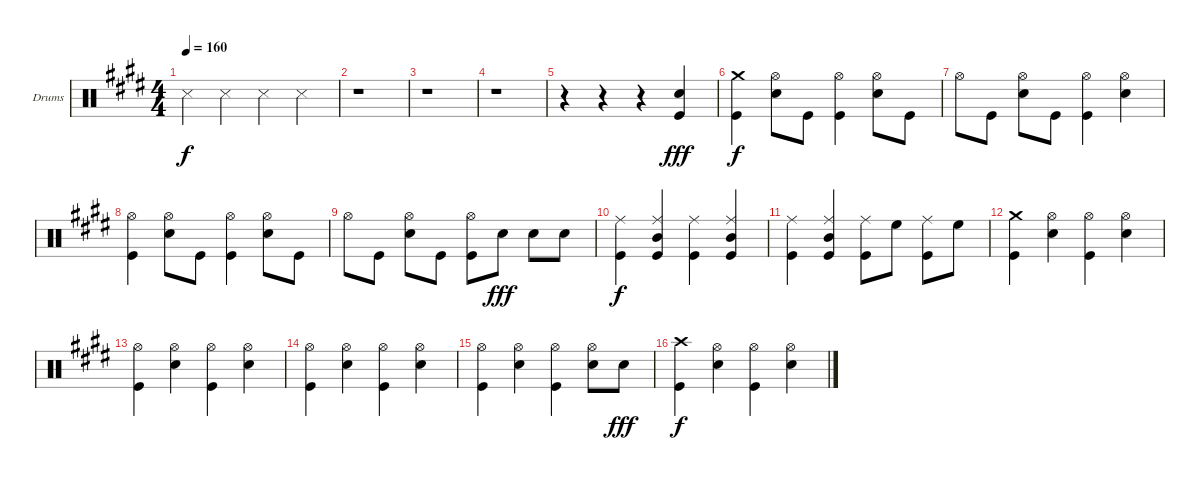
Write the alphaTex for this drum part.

\bracketExtendMode groupsimilarinstruments
\firstSystemTrackNameOrientation horizontal
\otherSystemsTrackNameOrientation horizontal
\track ("Drumkit" "Drums") {instrument percussion}
\staff {score}
\articulation defaults
\ts (4 4)
\tempo 160
\clef neutral
\ks e "Snare (side stick) 3".4{dy f} "Snare (side stick) 3".4 "Snare (side stick) 3".4 "Snare (side stick) 3".4
|
r.1 |
r.1 |
r.1 |
r.4 r.4 r.4 ("Snare (hit) 2" "Kick (hit)").4{dy fff} |
("Crash medium (hit)" "Kick (hit)").4{dy f} ("Hi-Hat (open)" "Snare (hit) 2").8 "Kick (hit)".8 ("Hi-Hat (open)" "Kick (hit)").4 ("Hi-Hat (open)" "Snare (hit) 2").8 "Kick (hit)".8 |
"Hi-Hat (open)".8 "Kick (hit)".8 ("Hi-Hat (open)" "Snare (hit) 2").8 "Kick (hit)".8 ("Hi-Hat (open)" "Kick (hit)").4 ("Hi-Hat (open)" "Snare (hit) 2").4 |
("Hi-Hat (open)" "Kick (hit)").4 ("Hi-Hat (open)" "Snare (hit) 2").8 "Kick (hit)".8 ("Hi-Hat (open)" "Kick (hit)").4 ("Hi-Hat (open)" "Snare (hit) 2").8 "Kick (hit)".8 |
"Hi-Hat (open)".8 "Kick (hit)".8 ("Hi-Hat (open)" "Snare (hit) 2").8 "Kick (hit)".8 ("Hi-Hat (open)" "Kick (hit)").8 "Snare (hit) 2".8{dy fff} "Snare (hit) 2".8 "Snare (hit) 2".8 |
("Ride (middle)" "Kick (hit)").4{dy f} ("Ride (middle)" "Mid Tom (hit)" "Kick (hit)").4 ("Ride (middle)" "Kick (hit)").4 ("Ride (middle)" "Mid Tom (hit)" "Kick (hit)").4 |
("Ride (middle)" "Kick (hit)").4 ("Ride (middle)" "Mid Tom (hit)" "Kick (hit)").4 ("Ride (middle)" "Kick (hit)").8 "High Floor Tom (hit)".8 ("Ride (middle)" "Kick (hit)").8 "High Floor Tom (hit)".8 |
("Crash medium (hit)" "Kick (hit)").4 ("Hi-Hat (open)" "Snare (hit) 2").4 ("Hi-Hat (open)" "Kick (hit)").4 ("Hi-Hat (open)" "Snare (hit) 2").4 |
("Hi-Hat (open)" "Kick (hit)").4 ("Hi-Hat (open)" "Snare (hit) 2").4 ("Hi-Hat (open)" "Kick (hit)").4 ("Hi-Hat (open)" "Snare (hit) 2").4 |
("Hi-Hat (open)" "Kick (hit)").4 ("Hi-Hat (open)" "Snare (hit) 2").4 ("Hi-Hat (open)" "Kick (hit)").4 ("Hi-Hat (open)" "Snare (hit) 2").4 |
("Hi-Hat (open)" "Kick (hit)").4 ("Hi-Hat (open)" "Snare (hit) 2").4 ("Hi-Hat (open)" "Kick (hit)").4 ("Hi-Hat (open)" "Snare (hit) 2").8 "Snare (hit) 2".8{dy fff} |
("Crash high (hit)" "Kick (hit)").4{dy f} ("Hi-Hat (open)" "Snare (hit) 2").4 ("Hi-Hat (open)" "Kick (hit)").4 ("Hi-Hat (open)" "Snare (hit) 2").4
